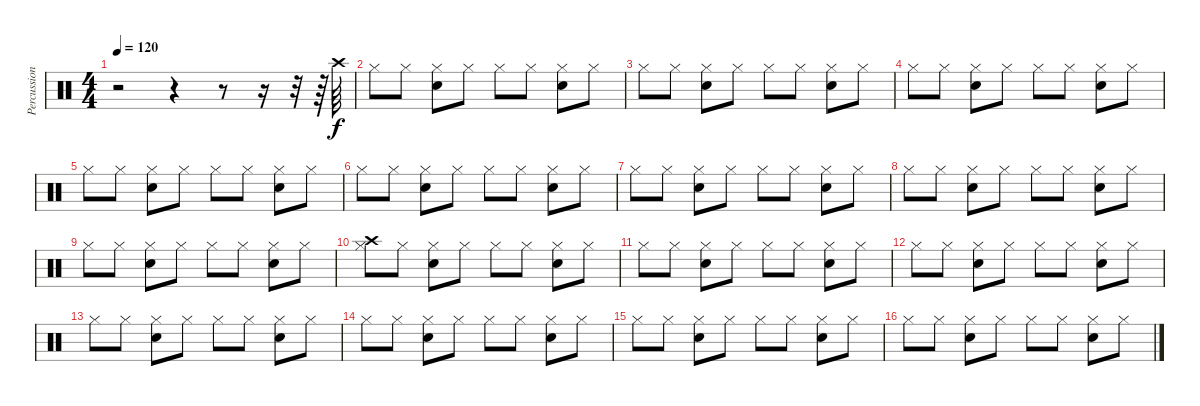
\track ("Percussion      " "Percussion") {instrument percussion}
\staff {score}
\articulation defaults
\ts (4 4)
\tempo 120
\clef neutral
\ks c
r.2{dy f} r.4 r.8 r.16 r.32 r.64 "Crash high (hit)".64 |
"Hi-Hat (closed)".8 "Hi-Hat (closed)".8 ("Hi-Hat (closed)" "Snare (hit) 2").8 "Hi-Hat (closed)".8 "Hi-Hat (closed)".8 "Hi-Hat (closed)".8 ("Hi-Hat (closed)" "Snare (hit) 2").8 "Hi-Hat (closed)".8 |
"Hi-Hat (closed)".8 "Hi-Hat (closed)".8 ("Hi-Hat (closed)" "Snare (hit) 2").8 "Hi-Hat (closed)".8 "Hi-Hat (closed)".8 "Hi-Hat (closed)".8 ("Hi-Hat (closed)" "Snare (hit) 2").8 "Hi-Hat (closed)".8 |
"Hi-Hat (closed)".8 "Hi-Hat (closed)".8 ("Hi-Hat (closed)" "Snare (hit) 2").8 "Hi-Hat (closed)".8 "Hi-Hat (closed)".8 "Hi-Hat (closed)".8 ("Hi-Hat (closed)" "Snare (hit) 2").8 "Hi-Hat (closed)".8 |
"Hi-Hat (closed)".8 "Hi-Hat (closed)".8 ("Hi-Hat (closed)" "Snare (hit) 2").8 "Hi-Hat (closed)".8 "Hi-Hat (closed)".8 "Hi-Hat (closed)".8 ("Hi-Hat (closed)" "Snare (hit) 2").8 "Hi-Hat (closed)".8 |
"Hi-Hat (closed)".8 "Hi-Hat (closed)".8 ("Hi-Hat (closed)" "Snare (hit) 2").8 "Hi-Hat (closed)".8 "Hi-Hat (closed)".8 "Hi-Hat (closed)".8 ("Hi-Hat (closed)" "Snare (hit) 2").8 "Hi-Hat (closed)".8 |
"Hi-Hat (closed)".8 "Hi-Hat (closed)".8 ("Hi-Hat (closed)" "Snare (hit) 2").8 "Hi-Hat (closed)".8 "Hi-Hat (closed)".8 "Hi-Hat (closed)".8 ("Hi-Hat (closed)" "Snare (hit) 2").8 "Hi-Hat (closed)".8 |
"Hi-Hat (closed)".8 "Hi-Hat (closed)".8 ("Hi-Hat (closed)" "Snare (hit) 2").8 "Hi-Hat (closed)".8 "Hi-Hat (closed)".8 "Hi-Hat (closed)".8 ("Hi-Hat (closed)" "Snare (hit) 2").8 "Hi-Hat (closed)".8 |
"Hi-Hat (closed)".8 "Hi-Hat (closed)".8 ("Hi-Hat (closed)" "Snare (hit) 2").8 "Hi-Hat (closed)".8 "Hi-Hat (closed)".8 "Hi-Hat (closed)".8 ("Hi-Hat (closed)" "Snare (hit) 2").8 "Hi-Hat (closed)".8 |
("Crash high (hit)" "Hi-Hat (closed)").8 "Hi-Hat (closed)".8 ("Hi-Hat (closed)" "Snare (hit) 2").8 "Hi-Hat (closed)".8 "Hi-Hat (closed)".8 "Hi-Hat (closed)".8 ("Hi-Hat (closed)" "Snare (hit) 2").8 "Hi-Hat (closed)".8 |
"Hi-Hat (closed)".8 "Hi-Hat (closed)".8 ("Hi-Hat (closed)" "Snare (hit) 2").8 "Hi-Hat (closed)".8 "Hi-Hat (closed)".8 "Hi-Hat (closed)".8 ("Hi-Hat (closed)" "Snare (hit) 2").8 "Hi-Hat (closed)".8 |
"Hi-Hat (closed)".8 "Hi-Hat (closed)".8 ("Hi-Hat (closed)" "Snare (hit) 2").8 "Hi-Hat (closed)".8 "Hi-Hat (closed)".8 "Hi-Hat (closed)".8 ("Hi-Hat (closed)" "Snare (hit) 2").8 "Hi-Hat (closed)".8 |
"Hi-Hat (closed)".8 "Hi-Hat (closed)".8 ("Hi-Hat (closed)" "Snare (hit) 2").8 "Hi-Hat (closed)".8 "Hi-Hat (closed)".8 "Hi-Hat (closed)".8 ("Hi-Hat (closed)" "Snare (hit) 2").8 "Hi-Hat (closed)".8 |
"Hi-Hat (closed)".8 "Hi-Hat (closed)".8 ("Hi-Hat (closed)" "Snare (hit) 2").8 "Hi-Hat (closed)".8 "Hi-Hat (closed)".8 "Hi-Hat (closed)".8 ("Hi-Hat (closed)" "Snare (hit) 2").8 "Hi-Hat (closed)".8 |
"Hi-Hat (closed)".8 "Hi-Hat (closed)".8 ("Hi-Hat (closed)" "Snare (hit) 2").8 "Hi-Hat (closed)".8 "Hi-Hat (closed)".8 "Hi-Hat (closed)".8 ("Hi-Hat (closed)" "Snare (hit) 2").8 "Hi-Hat (closed)".8 |
"Hi-Hat (closed)".8 "Hi-Hat (closed)".8 ("Hi-Hat (closed)" "Snare (hit) 2").8 "Hi-Hat (closed)".8 "Hi-Hat (closed)".8 "Hi-Hat (closed)".8 ("Hi-Hat (closed)" "Snare (hit) 2").8 "Hi-Hat (closed)".8
